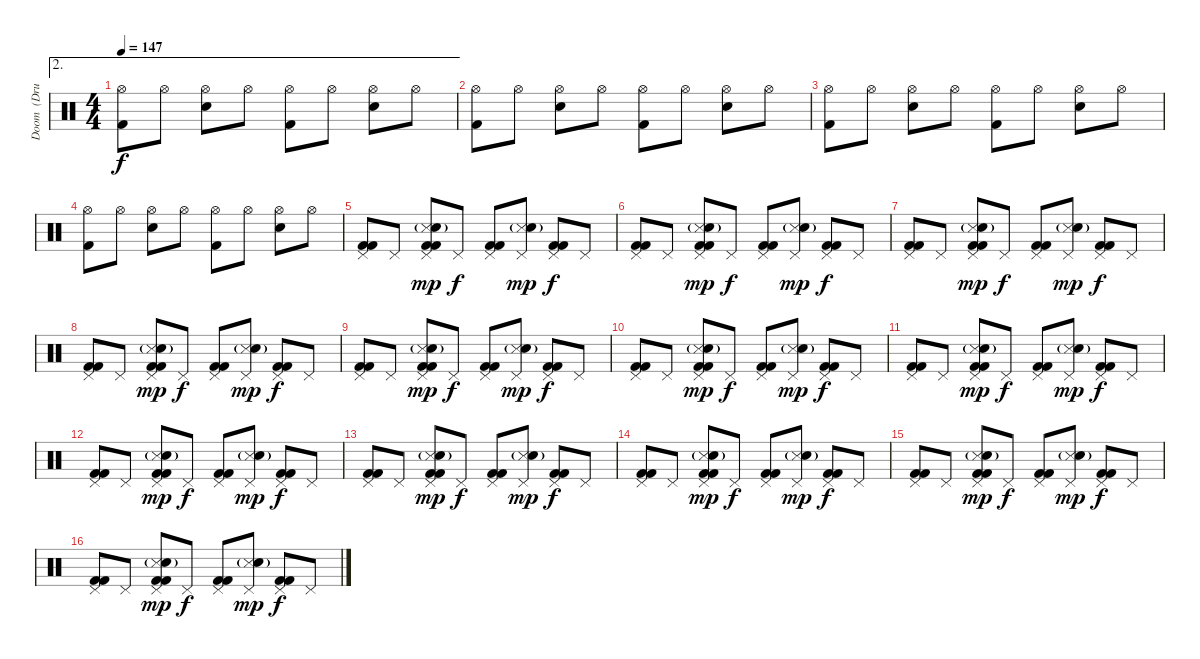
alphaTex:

\track ("Doom  (Drums)" "Doom  (Dru") {instrument percussion}
\staff {score}
\articulation defaults
\ae 2
\ts (4 4)
\tempo 147
\clef neutral
\ks c
("Hi-Hat (open)" "Kick (hit) 2").8{dy f} "Hi-Hat (open)".8 ("Hi-Hat (open)" "Electric Snare (hit)").8 "Hi-Hat (open)".8 ("Hi-Hat (open)" "Kick (hit) 2").8 "Hi-Hat (open)".8 ("Hi-Hat (open)" "Electric Snare (hit)").8 "Hi-Hat (open)".8 |
("Hi-Hat (open)" "Kick (hit) 2").8 "Hi-Hat (open)".8 ("Hi-Hat (open)" "Electric Snare (hit)").8 "Hi-Hat (open)".8 ("Hi-Hat (open)" "Kick (hit) 2").8 "Hi-Hat (open)".8 ("Hi-Hat (open)" "Electric Snare (hit)").8 "Hi-Hat (open)".8 |
("Hi-Hat (open)" "Kick (hit) 2").8 "Hi-Hat (open)".8 ("Hi-Hat (open)" "Electric Snare (hit)").8 "Hi-Hat (open)".8 ("Hi-Hat (open)" "Kick (hit) 2").8 "Hi-Hat (open)".8 ("Hi-Hat (open)" "Electric Snare (hit)").8 "Hi-Hat (open)".8 |
("Hi-Hat (open)" "Kick (hit) 2").8 "Hi-Hat (open)".8 ("Hi-Hat (open)" "Electric Snare (hit)").8 "Hi-Hat (open)".8 ("Hi-Hat (open)" "Kick (hit) 2").8 "Hi-Hat (open)".8 ("Hi-Hat (open)" "Electric Snare (hit)").8 "Hi-Hat (open)".8 |
("Pedal Hi-Hat (hit)" "Kick (hit) 2" "Kick (hit) 2").8 "Pedal Hi-Hat (hit)".8 ("Pedal Hi-Hat (hit)" "Snare (side stick) 3" "Electric Snare (hit)"{g} "Kick (hit) 2" "Kick (hit) 2").8{dy mp} "Pedal Hi-Hat (hit)".8{dy f} ("Pedal Hi-Hat (hit)" "Kick (hit) 2" "Kick (hit) 2").8 ("Pedal Hi-Hat (hit)" "Snare (side stick) 3" "Electric Snare (hit)"{g}).8{dy mp} ("Pedal Hi-Hat (hit)" "Kick (hit) 2" "Kick (hit) 2").8{dy f} "Pedal Hi-Hat (hit)".8 |
("Pedal Hi-Hat (hit)" "Kick (hit) 2" "Kick (hit) 2").8 "Pedal Hi-Hat (hit)".8 ("Pedal Hi-Hat (hit)" "Snare (side stick) 3" "Electric Snare (hit)"{g} "Kick (hit) 2" "Kick (hit) 2").8{dy mp} "Pedal Hi-Hat (hit)".8{dy f} ("Pedal Hi-Hat (hit)" "Kick (hit) 2" "Kick (hit) 2").8 ("Pedal Hi-Hat (hit)" "Snare (side stick) 3" "Electric Snare (hit)"{g}).8{dy mp} ("Pedal Hi-Hat (hit)" "Kick (hit) 2" "Kick (hit) 2").8{dy f} "Pedal Hi-Hat (hit)".8 |
("Pedal Hi-Hat (hit)" "Kick (hit) 2" "Kick (hit) 2").8 "Pedal Hi-Hat (hit)".8 ("Pedal Hi-Hat (hit)" "Snare (side stick) 3" "Electric Snare (hit)"{g} "Kick (hit) 2" "Kick (hit) 2").8{dy mp} "Pedal Hi-Hat (hit)".8{dy f} ("Pedal Hi-Hat (hit)" "Kick (hit) 2" "Kick (hit) 2").8 ("Pedal Hi-Hat (hit)" "Snare (side stick) 3" "Electric Snare (hit)"{g}).8{dy mp} ("Pedal Hi-Hat (hit)" "Kick (hit) 2" "Kick (hit) 2").8{dy f} "Pedal Hi-Hat (hit)".8 |
("Pedal Hi-Hat (hit)" "Kick (hit) 2" "Kick (hit) 2").8 "Pedal Hi-Hat (hit)".8 ("Pedal Hi-Hat (hit)" "Snare (side stick) 3" "Electric Snare (hit)"{g} "Kick (hit) 2" "Kick (hit) 2").8{dy mp} "Pedal Hi-Hat (hit)".8{dy f} ("Pedal Hi-Hat (hit)" "Kick (hit) 2" "Kick (hit) 2").8 ("Pedal Hi-Hat (hit)" "Snare (side stick) 3" "Electric Snare (hit)"{g}).8{dy mp} ("Pedal Hi-Hat (hit)" "Kick (hit) 2" "Kick (hit) 2").8{dy f} "Pedal Hi-Hat (hit)".8 |
("Pedal Hi-Hat (hit)" "Kick (hit) 2" "Kick (hit) 2").8 "Pedal Hi-Hat (hit)".8 ("Pedal Hi-Hat (hit)" "Snare (side stick) 3" "Electric Snare (hit)"{g} "Kick (hit) 2" "Kick (hit) 2").8{dy mp} "Pedal Hi-Hat (hit)".8{dy f} ("Pedal Hi-Hat (hit)" "Kick (hit) 2" "Kick (hit) 2").8 ("Pedal Hi-Hat (hit)" "Snare (side stick) 3" "Electric Snare (hit)"{g}).8{dy mp} ("Pedal Hi-Hat (hit)" "Kick (hit) 2" "Kick (hit) 2").8{dy f} "Pedal Hi-Hat (hit)".8 |
("Pedal Hi-Hat (hit)" "Kick (hit) 2" "Kick (hit) 2").8 "Pedal Hi-Hat (hit)".8 ("Pedal Hi-Hat (hit)" "Snare (side stick) 3" "Electric Snare (hit)"{g} "Kick (hit) 2" "Kick (hit) 2").8{dy mp} "Pedal Hi-Hat (hit)".8{dy f} ("Pedal Hi-Hat (hit)" "Kick (hit) 2" "Kick (hit) 2").8 ("Pedal Hi-Hat (hit)" "Snare (side stick) 3" "Electric Snare (hit)"{g}).8{dy mp} ("Pedal Hi-Hat (hit)" "Kick (hit) 2" "Kick (hit) 2").8{dy f} "Pedal Hi-Hat (hit)".8 |
("Pedal Hi-Hat (hit)" "Kick (hit) 2" "Kick (hit) 2").8 "Pedal Hi-Hat (hit)".8 ("Pedal Hi-Hat (hit)" "Snare (side stick) 3" "Electric Snare (hit)"{g} "Kick (hit) 2" "Kick (hit) 2").8{dy mp} "Pedal Hi-Hat (hit)".8{dy f} ("Pedal Hi-Hat (hit)" "Kick (hit) 2" "Kick (hit) 2").8 ("Pedal Hi-Hat (hit)" "Snare (side stick) 3" "Electric Snare (hit)"{g}).8{dy mp} ("Pedal Hi-Hat (hit)" "Kick (hit) 2" "Kick (hit) 2").8{dy f} "Pedal Hi-Hat (hit)".8 |
("Pedal Hi-Hat (hit)" "Kick (hit) 2" "Kick (hit) 2").8 "Pedal Hi-Hat (hit)".8 ("Pedal Hi-Hat (hit)" "Snare (side stick) 3" "Electric Snare (hit)"{g} "Kick (hit) 2" "Kick (hit) 2").8{dy mp} "Pedal Hi-Hat (hit)".8{dy f} ("Pedal Hi-Hat (hit)" "Kick (hit) 2" "Kick (hit) 2").8 ("Pedal Hi-Hat (hit)" "Snare (side stick) 3" "Electric Snare (hit)"{g}).8{dy mp} ("Pedal Hi-Hat (hit)" "Kick (hit) 2" "Kick (hit) 2").8{dy f} "Pedal Hi-Hat (hit)".8 |
("Pedal Hi-Hat (hit)" "Kick (hit) 2" "Kick (hit) 2").8 "Pedal Hi-Hat (hit)".8 ("Pedal Hi-Hat (hit)" "Snare (side stick) 3" "Electric Snare (hit)"{g} "Kick (hit) 2" "Kick (hit) 2").8{dy mp} "Pedal Hi-Hat (hit)".8{dy f} ("Pedal Hi-Hat (hit)" "Kick (hit) 2" "Kick (hit) 2").8 ("Pedal Hi-Hat (hit)" "Snare (side stick) 3" "Electric Snare (hit)"{g}).8{dy mp} ("Pedal Hi-Hat (hit)" "Kick (hit) 2" "Kick (hit) 2").8{dy f} "Pedal Hi-Hat (hit)".8 |
("Pedal Hi-Hat (hit)" "Kick (hit) 2" "Kick (hit) 2").8 "Pedal Hi-Hat (hit)".8 ("Pedal Hi-Hat (hit)" "Snare (side stick) 3" "Electric Snare (hit)"{g} "Kick (hit) 2" "Kick (hit) 2").8{dy mp} "Pedal Hi-Hat (hit)".8{dy f} ("Pedal Hi-Hat (hit)" "Kick (hit) 2" "Kick (hit) 2").8 ("Pedal Hi-Hat (hit)" "Snare (side stick) 3" "Electric Snare (hit)"{g}).8{dy mp} ("Pedal Hi-Hat (hit)" "Kick (hit) 2" "Kick (hit) 2").8{dy f} "Pedal Hi-Hat (hit)".8 |
("Pedal Hi-Hat (hit)" "Kick (hit) 2" "Kick (hit) 2").8 "Pedal Hi-Hat (hit)".8 ("Pedal Hi-Hat (hit)" "Snare (side stick) 3" "Electric Snare (hit)"{g} "Kick (hit) 2" "Kick (hit) 2").8{dy mp} "Pedal Hi-Hat (hit)".8{dy f} ("Pedal Hi-Hat (hit)" "Kick (hit) 2" "Kick (hit) 2").8 ("Pedal Hi-Hat (hit)" "Snare (side stick) 3" "Electric Snare (hit)"{g}).8{dy mp} ("Pedal Hi-Hat (hit)" "Kick (hit) 2" "Kick (hit) 2").8{dy f} "Pedal Hi-Hat (hit)".8 |
("Pedal Hi-Hat (hit)" "Kick (hit) 2" "Kick (hit) 2").8 "Pedal Hi-Hat (hit)".8 ("Pedal Hi-Hat (hit)" "Snare (side stick) 3" "Electric Snare (hit)"{g} "Kick (hit) 2" "Kick (hit) 2").8{dy mp} "Pedal Hi-Hat (hit)".8{dy f} ("Pedal Hi-Hat (hit)" "Kick (hit) 2" "Kick (hit) 2").8 ("Pedal Hi-Hat (hit)" "Snare (side stick) 3" "Electric Snare (hit)"{g}).8{dy mp} ("Pedal Hi-Hat (hit)" "Kick (hit) 2" "Kick (hit) 2").8{dy f} "Pedal Hi-Hat (hit)".8
